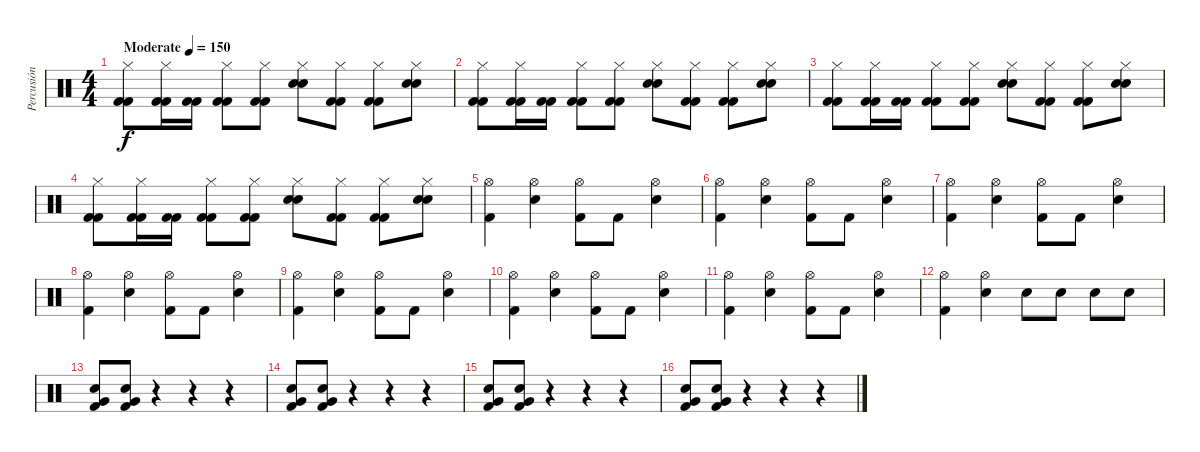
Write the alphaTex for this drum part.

\track ("Percusión" "Percusión") {instrument percussion}
\staff {score}
\articulation defaults
\ts (4 4)
\tempo (150 "Moderate")
\clef neutral
\ks c
("Kick (hit) 2" "Hi-Hat (closed)" "Kick (hit) 2").8{dy f volume 16} ("Kick (hit) 2" "Hi-Hat (closed)" "Kick (hit) 2").16 ("Kick (hit) 2" "Kick (hit) 2").16 ("Kick (hit) 2" "Hi-Hat (closed)" "Kick (hit) 2").8 ("Kick (hit) 2" "Hi-Hat (closed)" "Kick (hit) 2").8 ("Snare (hit) 2" "Hi-Hat (closed)" "Snare (hit) 2").8 ("Kick (hit) 2" "Hi-Hat (closed)" "Kick (hit) 2").8 ("Kick (hit) 2" "Hi-Hat (closed)" "Kick (hit) 2").8 ("Snare (hit) 2" "Hi-Hat (closed)" "Snare (hit) 2").8 |
("Kick (hit) 2" "Hi-Hat (closed)" "Kick (hit) 2").8 ("Kick (hit) 2" "Hi-Hat (closed)" "Kick (hit) 2").16 ("Kick (hit) 2" "Kick (hit) 2").16 ("Kick (hit) 2" "Hi-Hat (closed)" "Kick (hit) 2").8 ("Kick (hit) 2" "Hi-Hat (closed)" "Kick (hit) 2").8 ("Snare (hit) 2" "Hi-Hat (closed)" "Snare (hit) 2").8 ("Kick (hit) 2" "Hi-Hat (closed)" "Kick (hit) 2").8 ("Kick (hit) 2" "Hi-Hat (closed)" "Kick (hit) 2").8 ("Snare (hit) 2" "Hi-Hat (closed)" "Snare (hit) 2").8 |
("Kick (hit) 2" "Hi-Hat (closed)" "Kick (hit) 2").8 ("Kick (hit) 2" "Hi-Hat (closed)" "Kick (hit) 2").16 ("Kick (hit) 2" "Kick (hit) 2").16 ("Kick (hit) 2" "Hi-Hat (closed)" "Kick (hit) 2").8 ("Kick (hit) 2" "Hi-Hat (closed)" "Kick (hit) 2").8 ("Snare (hit) 2" "Hi-Hat (closed)" "Snare (hit) 2").8 ("Kick (hit) 2" "Hi-Hat (closed)" "Kick (hit) 2").8 ("Kick (hit) 2" "Hi-Hat (closed)" "Kick (hit) 2").8 ("Snare (hit) 2" "Hi-Hat (closed)" "Snare (hit) 2").8 |
("Kick (hit) 2" "Hi-Hat (closed)" "Kick (hit) 2").8 ("Kick (hit) 2" "Hi-Hat (closed)" "Kick (hit) 2").16 ("Kick (hit) 2" "Kick (hit) 2").16 ("Kick (hit) 2" "Hi-Hat (closed)" "Kick (hit) 2").8 ("Kick (hit) 2" "Hi-Hat (closed)" "Kick (hit) 2").8 ("Snare (hit) 2" "Hi-Hat (closed)" "Snare (hit) 2").8 ("Kick (hit) 2" "Hi-Hat (closed)" "Kick (hit) 2").8 ("Kick (hit) 2" "Hi-Hat (closed)" "Kick (hit) 2").8 ("Snare (hit) 2" "Hi-Hat (closed)" "Snare (hit) 2").8 |
("Hi-Hat (open)" "Kick (hit) 2").4{volume 13} ("Hi-Hat (open)" "Electric Snare (hit)").4 ("Hi-Hat (open)" "Kick (hit) 2").8 "Kick (hit) 2".8 ("Hi-Hat (open)" "Electric Snare (hit)").4 |
("Hi-Hat (open)" "Kick (hit) 2").4 ("Hi-Hat (open)" "Electric Snare (hit)").4 ("Hi-Hat (open)" "Kick (hit) 2").8 "Kick (hit) 2".8 ("Hi-Hat (open)" "Electric Snare (hit)").4 |
("Hi-Hat (open)" "Kick (hit) 2").4 ("Hi-Hat (open)" "Electric Snare (hit)").4 ("Hi-Hat (open)" "Kick (hit) 2").8 "Kick (hit) 2".8 ("Hi-Hat (open)" "Electric Snare (hit)").4 |
("Hi-Hat (open)" "Kick (hit) 2").4 ("Hi-Hat (open)" "Electric Snare (hit)").4 ("Hi-Hat (open)" "Kick (hit) 2").8 "Kick (hit) 2".8 ("Hi-Hat (open)" "Electric Snare (hit)").4 |
("Hi-Hat (open)" "Kick (hit) 2").4 ("Hi-Hat (open)" "Electric Snare (hit)").4 ("Hi-Hat (open)" "Kick (hit) 2").8 "Kick (hit) 2".8 ("Hi-Hat (open)" "Electric Snare (hit)").4 |
("Hi-Hat (open)" "Kick (hit) 2").4 ("Hi-Hat (open)" "Electric Snare (hit)").4 ("Hi-Hat (open)" "Kick (hit) 2").8 "Kick (hit) 2".8 ("Hi-Hat (open)" "Electric Snare (hit)").4 |
("Hi-Hat (open)" "Kick (hit) 2").4 ("Hi-Hat (open)" "Electric Snare (hit)").4 ("Hi-Hat (open)" "Kick (hit) 2").8 "Kick (hit) 2".8 ("Hi-Hat (open)" "Electric Snare (hit)").4 |
("Hi-Hat (open)" "Kick (hit) 2").4 ("Hi-Hat (open)" "Electric Snare (hit)").4 "Electric Snare (hit)".8 "Electric Snare (hit)".8 "Electric Snare (hit)".8 "Electric Snare (hit)".8 |
("Very Low Tom (hit)" "Electric Snare (hit)" "Kick (hit) 2").8 ("Very Low Tom (hit)" "Electric Snare (hit)" "Kick (hit) 2").8 r.4 r.4 r.4 |
("Very Low Tom (hit)" "Electric Snare (hit)" "Kick (hit) 2").8 ("Very Low Tom (hit)" "Electric Snare (hit)" "Kick (hit) 2").8 r.4 r.4 r.4 |
("Very Low Tom (hit)" "Electric Snare (hit)" "Kick (hit) 2").8 ("Very Low Tom (hit)" "Electric Snare (hit)" "Kick (hit) 2").8 r.4 r.4 r.4 |
("Very Low Tom (hit)" "Electric Snare (hit)" "Kick (hit) 2").8 ("Very Low Tom (hit)" "Electric Snare (hit)" "Kick (hit) 2").8 r.4 r.4 r.4
